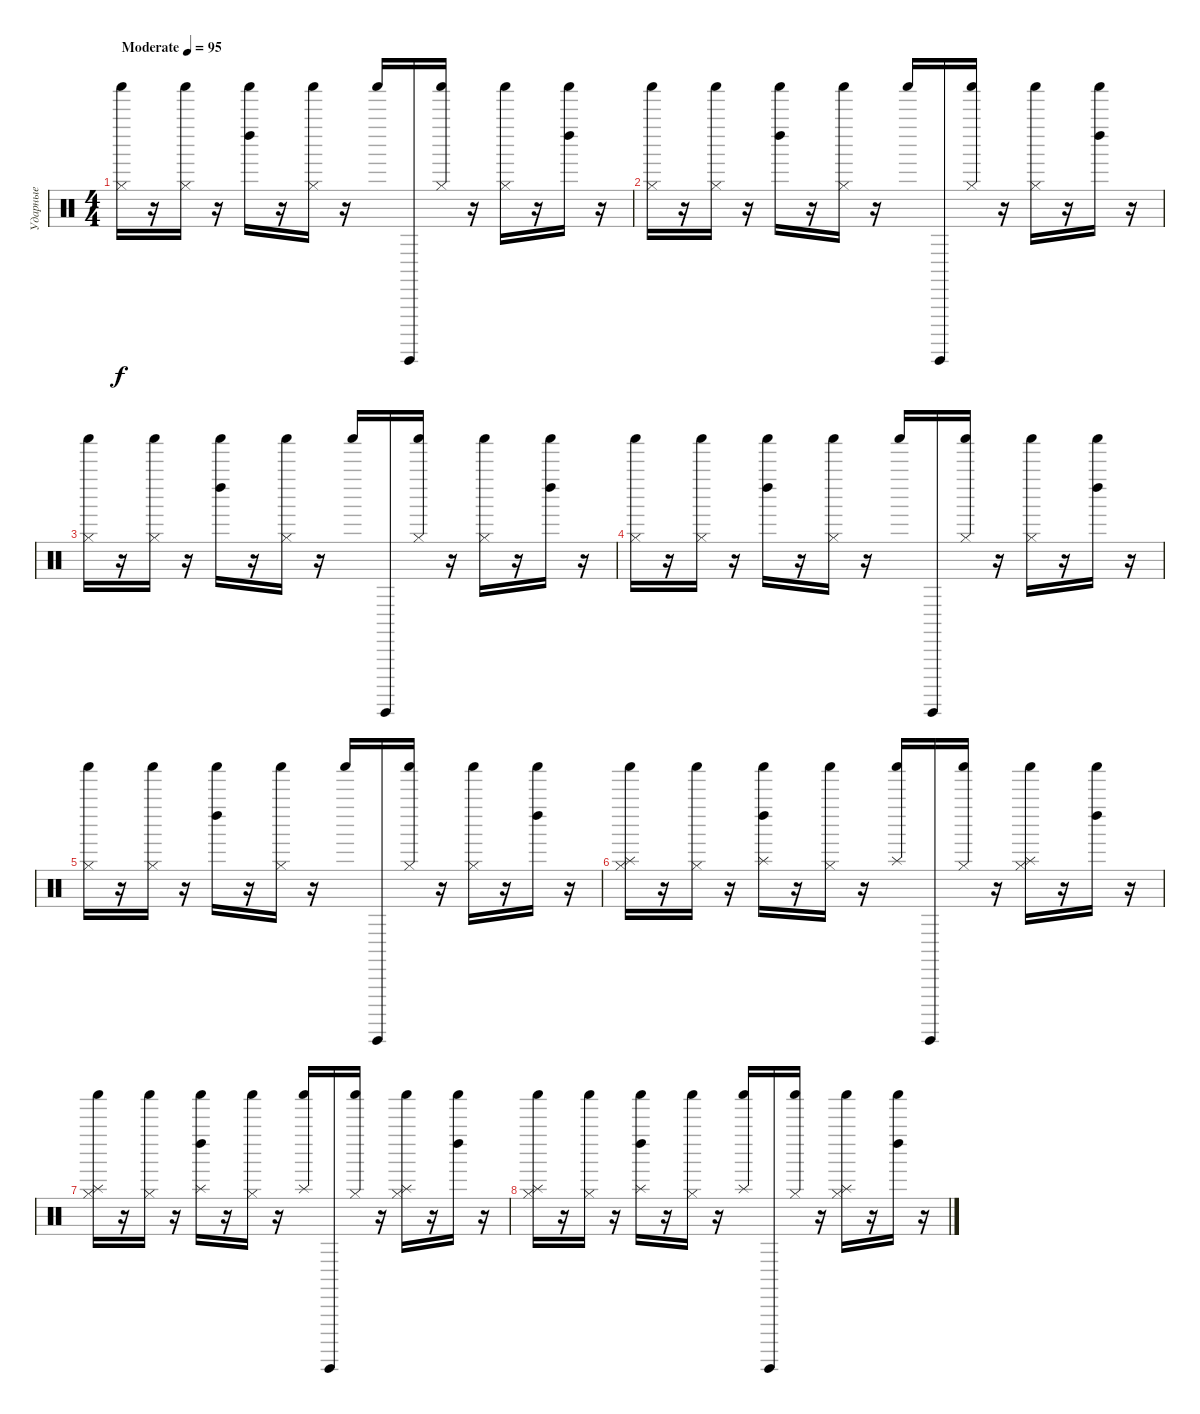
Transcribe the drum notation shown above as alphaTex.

\track ("Ударные" "Ударные") {instrument percussion}
\staff {score}
\articulation defaults
\ts (4 4)
\tempo (95 "Moderate")
\clef neutral
\ks c
("Shaker (hit)" "Hi-Hat (closed)").16{dy f volume 10} r.16 ("Shaker (hit)" "Hi-Hat (closed)").16 r.16 ("Shaker (hit)" "Left Maraca (hit)").16 r.16 ("Shaker (hit)" "Hi-Hat (closed)").16 r.16 "Shaker (hit)".16 "Guiro (hit)".16 ("Shaker (hit)" "Hi-Hat (closed)").16 r.16 ("Shaker (hit)" "Hi-Hat (closed)").16 r.16 ("Shaker (hit)" "Left Maraca (hit)").16 r.16 |
("Shaker (hit)" "Hi-Hat (closed)").16 r.16 ("Shaker (hit)" "Hi-Hat (closed)").16 r.16 ("Shaker (hit)" "Left Maraca (hit)").16 r.16 ("Shaker (hit)" "Hi-Hat (closed)").16 r.16 "Shaker (hit)".16 "Guiro (hit)".16 ("Shaker (hit)" "Hi-Hat (closed)").16 r.16 ("Shaker (hit)" "Hi-Hat (closed)").16 r.16 ("Shaker (hit)" "Left Maraca (hit)").16 r.16 |
("Shaker (hit)" "Hi-Hat (closed)").16 r.16 ("Shaker (hit)" "Hi-Hat (closed)").16 r.16 ("Shaker (hit)" "Left Maraca (hit)").16 r.16 ("Shaker (hit)" "Hi-Hat (closed)").16 r.16 "Shaker (hit)".16 "Guiro (hit)".16 ("Shaker (hit)" "Hi-Hat (closed)").16 r.16 ("Shaker (hit)" "Hi-Hat (closed)").16 r.16 ("Shaker (hit)" "Left Maraca (hit)").16 r.16 |
("Shaker (hit)" "Hi-Hat (closed)").16 r.16 ("Shaker (hit)" "Hi-Hat (closed)").16 r.16 ("Shaker (hit)" "Left Maraca (hit)").16 r.16 ("Shaker (hit)" "Hi-Hat (closed)").16 r.16 "Shaker (hit)".16 "Guiro (hit)".16 ("Shaker (hit)" "Hi-Hat (closed)").16 r.16 ("Shaker (hit)" "Hi-Hat (closed)").16 r.16 ("Shaker (hit)" "Left Maraca (hit)").16 r.16 |
("Shaker (hit)" "Hi-Hat (closed)").16 r.16 ("Shaker (hit)" "Hi-Hat (closed)").16 r.16 ("Shaker (hit)" "Left Maraca (hit)").16 r.16 ("Shaker (hit)" "Hi-Hat (closed)").16 r.16 "Shaker (hit)".16 "Guiro (hit)".16 ("Shaker (hit)" "Hi-Hat (closed)").16 r.16 ("Shaker (hit)" "Hi-Hat (closed)").16 r.16 ("Shaker (hit)" "Left Maraca (hit)").16 r.16 |
("Shaker (hit)" "Hi-Hat (closed)" "Splash (hit)").16 r.16 ("Shaker (hit)" "Hi-Hat (closed)").16 r.16 ("Shaker (hit)" "Left Maraca (hit)" "Splash (hit)").16 r.16 ("Shaker (hit)" "Hi-Hat (closed)").16 r.16 ("Shaker (hit)" "Splash (hit)").16 "Guiro (hit)".16 ("Shaker (hit)" "Hi-Hat (closed)").16 r.16 ("Shaker (hit)" "Hi-Hat (closed)" "Splash (hit)").16 r.16 ("Shaker (hit)" "Left Maraca (hit)").16 r.16 |
("Shaker (hit)" "Hi-Hat (closed)" "Splash (hit)").16 r.16 ("Shaker (hit)" "Hi-Hat (closed)").16 r.16 ("Shaker (hit)" "Left Maraca (hit)" "Splash (hit)").16 r.16 ("Shaker (hit)" "Hi-Hat (closed)").16 r.16 ("Shaker (hit)" "Splash (hit)").16 "Guiro (hit)".16 ("Shaker (hit)" "Hi-Hat (closed)").16 r.16 ("Shaker (hit)" "Hi-Hat (closed)" "Splash (hit)").16 r.16 ("Shaker (hit)" "Left Maraca (hit)").16 r.16 |
("Shaker (hit)" "Hi-Hat (closed)" "Splash (hit)").16 r.16 ("Shaker (hit)" "Hi-Hat (closed)").16 r.16 ("Shaker (hit)" "Left Maraca (hit)" "Splash (hit)").16 r.16 ("Shaker (hit)" "Hi-Hat (closed)").16 r.16 ("Shaker (hit)" "Splash (hit)").16 "Guiro (hit)".16 ("Shaker (hit)" "Hi-Hat (closed)").16 r.16 ("Shaker (hit)" "Hi-Hat (closed)" "Splash (hit)").16 r.16 ("Shaker (hit)" "Left Maraca (hit)").16 r.16
